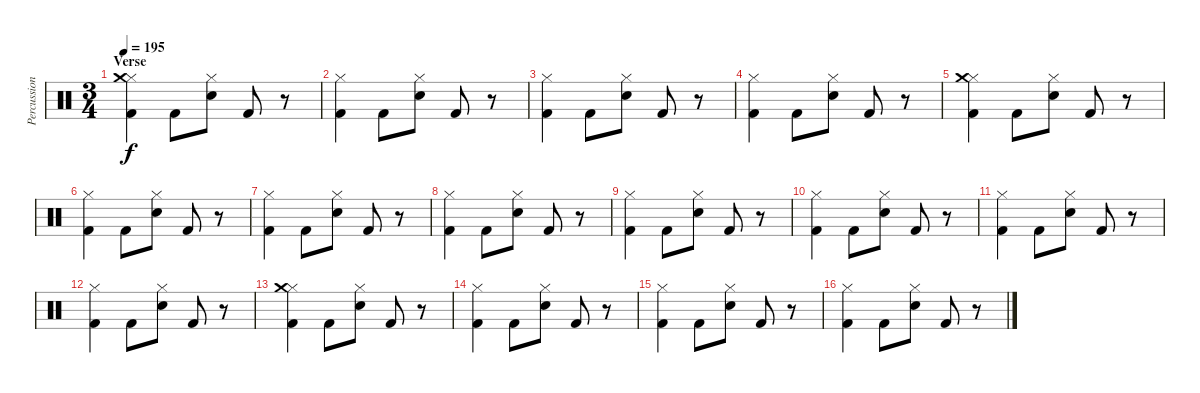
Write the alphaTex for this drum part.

\track ("Percussion" "Percussion") {instrument percussion}
\staff {score}
\articulation defaults
\ts (3 4)
\section ("" "Verse")
\tempo 195
\clef neutral
\ks c
("Hi-Hat (closed)" "Crash medium (hit)" "Kick (hit) 2").4{dy f} "Kick (hit) 2".8 ("Hi-Hat (closed)" "Snare (hit) 2").8 "Kick (hit) 2".8 r.8 |
("Hi-Hat (closed)" "Kick (hit) 2").4 "Kick (hit) 2".8 ("Hi-Hat (closed)" "Snare (hit) 2").8 "Kick (hit) 2".8 r.8 |
("Hi-Hat (closed)" "Kick (hit) 2").4 "Kick (hit) 2".8 ("Hi-Hat (closed)" "Snare (hit) 2").8 "Kick (hit) 2".8 r.8 |
("Hi-Hat (closed)" "Kick (hit) 2").4 "Kick (hit) 2".8 ("Hi-Hat (closed)" "Snare (hit) 2").8 "Kick (hit) 2".8 r.8 |
("Hi-Hat (closed)" "Crash medium (hit)" "Kick (hit) 2").4 "Kick (hit) 2".8 ("Hi-Hat (closed)" "Snare (hit) 2").8 "Kick (hit) 2".8 r.8 |
("Hi-Hat (closed)" "Kick (hit) 2").4 "Kick (hit) 2".8 ("Hi-Hat (closed)" "Snare (hit) 2").8 "Kick (hit) 2".8 r.8 |
("Hi-Hat (closed)" "Kick (hit) 2").4 "Kick (hit) 2".8 ("Hi-Hat (closed)" "Snare (hit) 2").8 "Kick (hit) 2".8 r.8 |
("Hi-Hat (closed)" "Kick (hit) 2").4 "Kick (hit) 2".8 ("Hi-Hat (closed)" "Snare (hit) 2").8 "Kick (hit) 2".8 r.8 |
("Hi-Hat (closed)" "Kick (hit) 2").4 "Kick (hit) 2".8 ("Hi-Hat (closed)" "Snare (hit) 2").8 "Kick (hit) 2".8 r.8 |
("Hi-Hat (closed)" "Kick (hit) 2").4 "Kick (hit) 2".8 ("Hi-Hat (closed)" "Snare (hit) 2").8 "Kick (hit) 2".8 r.8 |
("Hi-Hat (closed)" "Kick (hit) 2").4 "Kick (hit) 2".8 ("Hi-Hat (closed)" "Snare (hit) 2").8 "Kick (hit) 2".8 r.8 |
("Hi-Hat (closed)" "Kick (hit) 2").4 "Kick (hit) 2".8 ("Hi-Hat (closed)" "Snare (hit) 2").8 "Kick (hit) 2".8 r.8 |
("Hi-Hat (closed)" "Crash medium (hit)" "Kick (hit) 2").4 "Kick (hit) 2".8 ("Hi-Hat (closed)" "Snare (hit) 2").8 "Kick (hit) 2".8 r.8 |
("Hi-Hat (closed)" "Kick (hit) 2").4 "Kick (hit) 2".8 ("Hi-Hat (closed)" "Snare (hit) 2").8 "Kick (hit) 2".8 r.8 |
("Hi-Hat (closed)" "Kick (hit) 2").4 "Kick (hit) 2".8 ("Hi-Hat (closed)" "Snare (hit) 2").8 "Kick (hit) 2".8 r.8 |
("Hi-Hat (closed)" "Kick (hit) 2").4 "Kick (hit) 2".8 ("Hi-Hat (closed)" "Snare (hit) 2").8 "Kick (hit) 2".8 r.8
